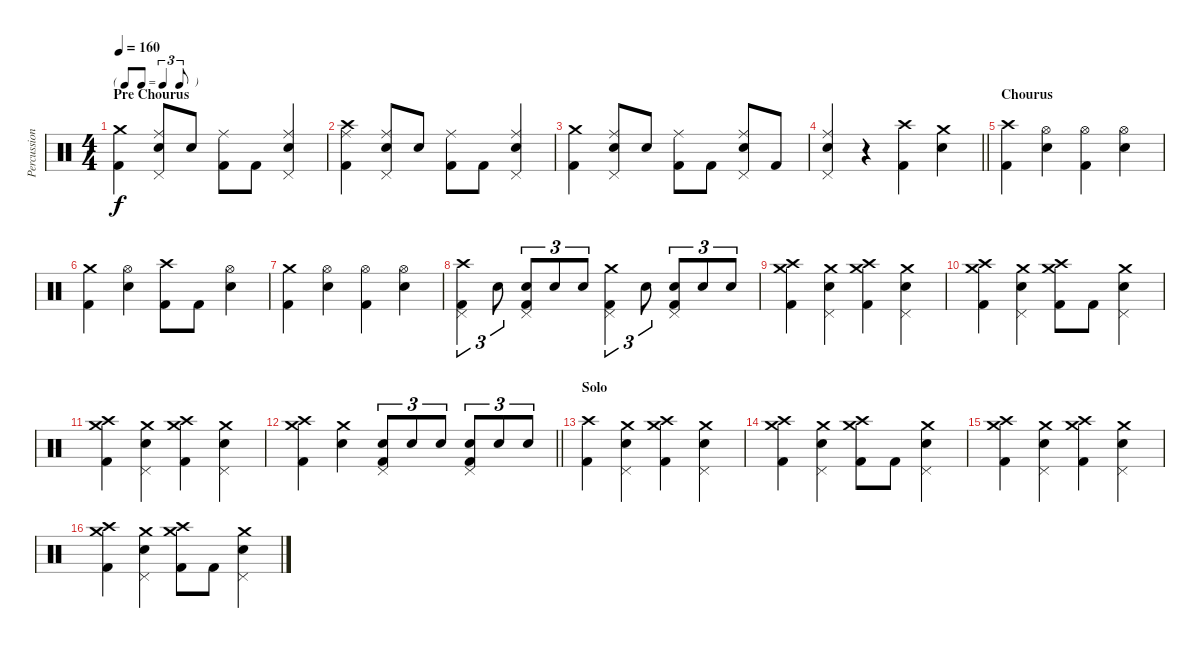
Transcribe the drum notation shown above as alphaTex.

\track ("Percussion" "Percussion") {instrument percussion}
\staff {score}
\articulation defaults
\ts (4 4)
\tf triplet8th
\section ("" "Pre Chourus")
\tempo 160
\clef neutral
\ks c
("Crash medium (hit)" "Kick (hit) 2").4{dy f} ("Ride (middle)" "Snare (hit) 2" "Pedal Hi-Hat (hit)").8 "Snare (hit) 2".8 ("Ride (middle)" "Kick (hit) 2").8 "Kick (hit) 2".8 ("Ride (middle)" "Snare (hit) 2" "Pedal Hi-Hat (hit)").4 |
("Crash high (hit)" "Ride (middle)" "Kick (hit) 2").4 ("Ride (middle)" "Snare (hit) 2" "Pedal Hi-Hat (hit)").8 "Snare (hit) 2".8 ("Ride (middle)" "Kick (hit) 2").8 "Kick (hit) 2".8 ("Ride (middle)" "Snare (hit) 2" "Pedal Hi-Hat (hit)").4 |
("Crash medium (hit)" "Kick (hit) 2").4 ("Ride (middle)" "Snare (hit) 2" "Pedal Hi-Hat (hit)").8 "Snare (hit) 2".8 ("Ride (middle)" "Kick (hit) 2").8 "Kick (hit) 2".8 ("Ride (middle)" "Snare (hit) 2" "Pedal Hi-Hat (hit)").8 "Kick (hit) 2".8 |
\barLineRight lightlight
("Ride (middle)" "Snare (hit) 2" "Pedal Hi-Hat (hit)").4 r.4 ("Crash high (hit)" "Kick (hit) 2").4 ("Crash medium (hit)" "Snare (hit) 2").4 |
\section ("" "Chourus")
("Crash high (hit)" "Kick (hit) 2").4 ("Hi-Hat (open)" "Snare (hit) 2").4 ("Hi-Hat (open)" "Kick (hit) 2").4 ("Hi-Hat (open)" "Snare (hit) 2").4 |
("Crash medium (hit)" "Kick (hit) 2").4 ("Hi-Hat (open)" "Snare (hit) 2").4 ("Crash high (hit)" "Kick (hit) 2").8 "Kick (hit) 2".8 ("Hi-Hat (open)" "Snare (hit) 2").4 |
("Crash medium (hit)" "Kick (hit) 2").4 ("Hi-Hat (open)" "Snare (hit) 2").4 ("Hi-Hat (open)" "Kick (hit) 2").4 ("Hi-Hat (open)" "Snare (hit) 2").4 |
("Crash high (hit)" "Pedal Hi-Hat (hit)" "Kick (hit) 2").4{tu (3 2)} "Snare (hit) 2".8{tu (3 2)} ("Snare (hit) 2" "Pedal Hi-Hat (hit)" "Kick (hit) 2").8{tu (3 2)} "Snare (hit) 2".8{tu (3 2)} "Snare (hit) 2".8{tu (3 2)} ("Crash medium (hit)" "Pedal Hi-Hat (hit)" "Kick (hit) 2").4{tu (3 2)} "Snare (hit) 2".8{tu (3 2)} ("Snare (hit) 2" "Pedal Hi-Hat (hit)" "Kick (hit) 2").8{tu (3 2)} "Snare (hit) 2".8{tu (3 2)} "Snare (hit) 2".8{tu (3 2)} |
("Crash medium (hit)" "Crash high (hit)" "Kick (hit) 2").4 ("Crash medium (hit)" "Snare (hit) 2" "Pedal Hi-Hat (hit)").4 ("Crash medium (hit)" "Crash high (hit)" "Kick (hit) 2").4 ("Crash medium (hit)" "Snare (hit) 2" "Pedal Hi-Hat (hit)").4 |
("Crash medium (hit)" "Crash high (hit)" "Kick (hit) 2").4 ("Crash medium (hit)" "Snare (hit) 2" "Pedal Hi-Hat (hit)").4 ("Crash medium (hit)" "Crash high (hit)" "Kick (hit) 2").8 "Kick (hit) 2".8 ("Crash medium (hit)" "Snare (hit) 2" "Pedal Hi-Hat (hit)").4 |
("Crash medium (hit)" "Crash high (hit)" "Kick (hit) 2").4 ("Crash medium (hit)" "Snare (hit) 2" "Pedal Hi-Hat (hit)").4 ("Crash medium (hit)" "Crash high (hit)" "Kick (hit) 2").4 ("Crash medium (hit)" "Snare (hit) 2" "Pedal Hi-Hat (hit)").4 |
\barLineRight lightlight
("Crash medium (hit)" "Crash high (hit)" "Kick (hit) 2").4 ("Crash medium (hit)" "Snare (hit) 2").4 ("Snare (hit) 2" "Pedal Hi-Hat (hit)" "Kick (hit) 2").8{tu (3 2)} "Snare (hit) 2".8{tu (3 2)} "Snare (hit) 2".8{tu (3 2)} ("Snare (hit) 2" "Pedal Hi-Hat (hit)" "Kick (hit) 2").8{tu (3 2)} "Snare (hit) 2".8{tu (3 2)} "Snare (hit) 2".8{tu (3 2)} |
\section ("" "Solo")
("Crash high (hit)" "Kick (hit) 2").4 ("Crash medium (hit)" "Snare (hit) 2" "Pedal Hi-Hat (hit)").4 ("Crash medium (hit)" "Crash high (hit)" "Kick (hit) 2").4 ("Crash medium (hit)" "Snare (hit) 2" "Pedal Hi-Hat (hit)").4 |
("Crash medium (hit)" "Crash high (hit)" "Kick (hit) 2").4 ("Crash medium (hit)" "Snare (hit) 2" "Pedal Hi-Hat (hit)").4 ("Crash medium (hit)" "Crash high (hit)" "Kick (hit) 2").8 "Kick (hit) 2".8 ("Crash medium (hit)" "Snare (hit) 2" "Pedal Hi-Hat (hit)").4 |
("Crash medium (hit)" "Crash high (hit)" "Kick (hit) 2").4 ("Crash medium (hit)" "Snare (hit) 2" "Pedal Hi-Hat (hit)").4 ("Crash medium (hit)" "Crash high (hit)" "Kick (hit) 2").4 ("Crash medium (hit)" "Snare (hit) 2" "Pedal Hi-Hat (hit)").4 |
("Crash medium (hit)" "Crash high (hit)" "Kick (hit) 2").4 ("Crash medium (hit)" "Snare (hit) 2" "Pedal Hi-Hat (hit)").4 ("Crash medium (hit)" "Crash high (hit)" "Kick (hit) 2").8 "Kick (hit) 2".8 ("Crash medium (hit)" "Snare (hit) 2" "Pedal Hi-Hat (hit)").4
